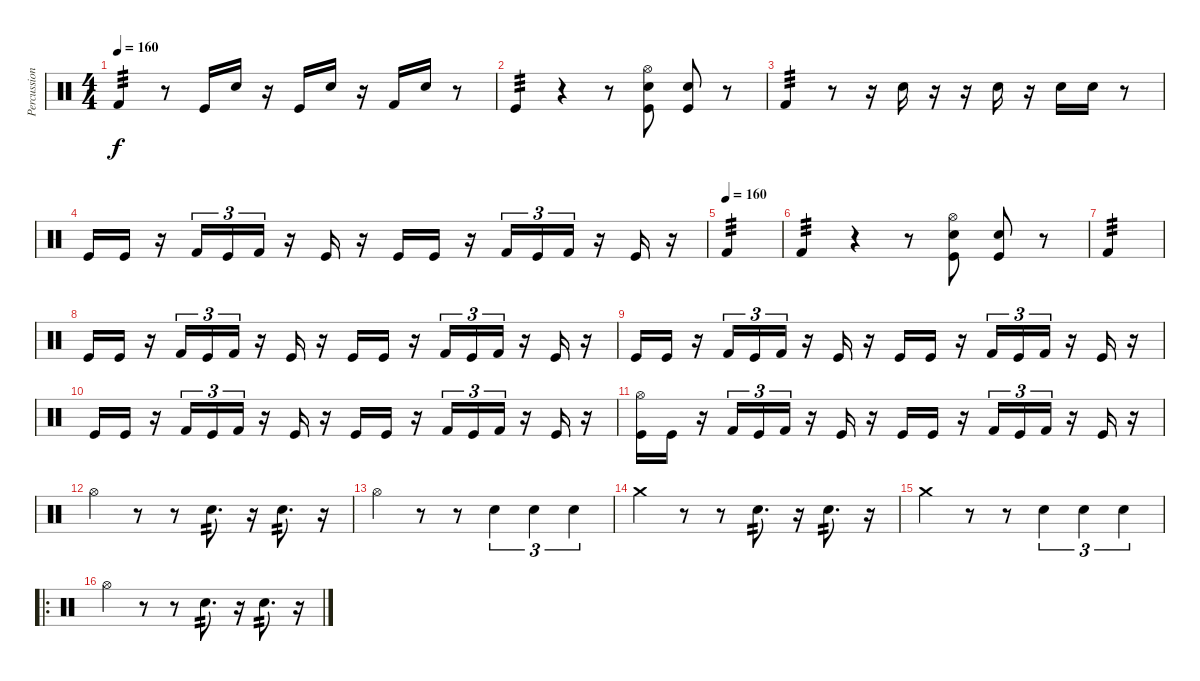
\track ("Percussion" "Percussion") {instrument percussion}
\staff {score}
\articulation defaults
\ts (4 4)
\tempo 160
\clef neutral
\ks c "Kick (hit) 2".4{tp 3 dy f}
r.8 "Kick (hit)".16 "Snare (hit) 2".16 r.16 "Kick (hit)".16 "Snare (hit) 2".16 r.16 "Kick (hit) 2".16 "Snare (hit) 2".16 r.8 |
"Kick (hit)".4{tp 3} r.4 r.8 ("Hi-Hat (open)" "Snare (hit) 2" "Kick (hit)").8 ("Snare (hit) 2" "Kick (hit)").8 r.8 |
"Kick (hit) 2".4{tp 3} r.8 r.16 "Snare (hit) 2".16 r.16 r.16 "Snare (hit) 2".16 r.16 "Snare (hit) 2".16 "Snare (hit) 2".16 r.8 |
"Kick (hit)".16 "Kick (hit)".16 r.16 "Kick (hit) 2".16{tu (3 2)} "Kick (hit)".16{tu (3 2)} "Kick (hit) 2".16{tu (3 2)} r.16 "Kick (hit)".16 r.16 "Kick (hit)".16 "Kick (hit)".16 r.16 "Kick (hit) 2".16{tu (3 2)} "Kick (hit)".16{tu (3 2)} "Kick (hit) 2".16{tu (3 2)} r.16 "Kick (hit)".16 r.16 |
\tempo (160)
"Kick (hit) 2".4{tp 3} |
"Kick (hit) 2".4{tp 3} r.4 r.8 ("Hi-Hat (open)" "Snare (hit) 2" "Kick (hit)").8 ("Snare (hit) 2" "Kick (hit)").8 r.8 |
"Kick (hit) 2".4{tp 3} |
"Kick (hit)".16 "Kick (hit)".16 r.16 "Kick (hit) 2".16{tu (3 2)} "Kick (hit)".16{tu (3 2)} "Kick (hit) 2".16{tu (3 2)} r.16 "Kick (hit)".16 r.16 "Kick (hit)".16 "Kick (hit)".16 r.16 "Kick (hit) 2".16{tu (3 2)} "Kick (hit)".16{tu (3 2)} "Kick (hit) 2".16{tu (3 2)} r.16 "Kick (hit)".16 r.16 |
"Kick (hit)".16 "Kick (hit)".16 r.16 "Kick (hit) 2".16{tu (3 2)} "Kick (hit)".16{tu (3 2)} "Kick (hit) 2".16{tu (3 2)} r.16 "Kick (hit)".16 r.16 "Kick (hit)".16 "Kick (hit)".16 r.16 "Kick (hit) 2".16{tu (3 2)} "Kick (hit)".16{tu (3 2)} "Kick (hit) 2".16{tu (3 2)} r.16 "Kick (hit)".16 r.16 |
"Kick (hit)".16 "Kick (hit)".16 r.16 "Kick (hit) 2".16{tu (3 2)} "Kick (hit)".16{tu (3 2)} "Kick (hit) 2".16{tu (3 2)} r.16 "Kick (hit)".16 r.16 "Kick (hit)".16 "Kick (hit)".16 r.16 "Kick (hit) 2".16{tu (3 2)} "Kick (hit)".16{tu (3 2)} "Kick (hit) 2".16{tu (3 2)} r.16 "Kick (hit)".16 r.16 |
("Hi-Hat (open)" "Kick (hit)").16 "Kick (hit)".16 r.16 "Kick (hit) 2".16{tu (3 2)} "Kick (hit)".16{tu (3 2)} "Kick (hit) 2".16{tu (3 2)} r.16 "Kick (hit)".16 r.16 "Kick (hit)".16 "Kick (hit)".16 r.16 "Kick (hit) 2".16{tu (3 2)} "Kick (hit)".16{tu (3 2)} "Kick (hit) 2".16{tu (3 2)} r.16 "Kick (hit)".16 r.16 |
"Hi-Hat (open)".4 r.8 r.8 "Snare (hit) 2".8{d tp 2} r.16 "Snare (hit) 2".8{d tp 2} r.16 |
"Hi-Hat (open)".4 r.8 r.8 "Snare (hit) 2".4{tu (3 2)} "Snare (hit) 2".4{tu (3 2)} "Snare (hit) 2".4{tu (3 2)} |
"Crash medium (hit)".4 r.8 r.8 "Snare (hit) 2".8{d tp 2} r.16 "Snare (hit) 2".8{d tp 2} r.16 |
"Crash medium (hit)".4 r.8 r.8 "Snare (hit) 2".4{tu (3 2)} "Snare (hit) 2".4{tu (3 2)} "Snare (hit) 2".4{tu (3 2)} |
\ro "Hi-Hat (open)".4
r.8 r.8 "Snare (hit) 2".8{d tp 2} r.16 "Snare (hit) 2".8{d tp 2} r.16
